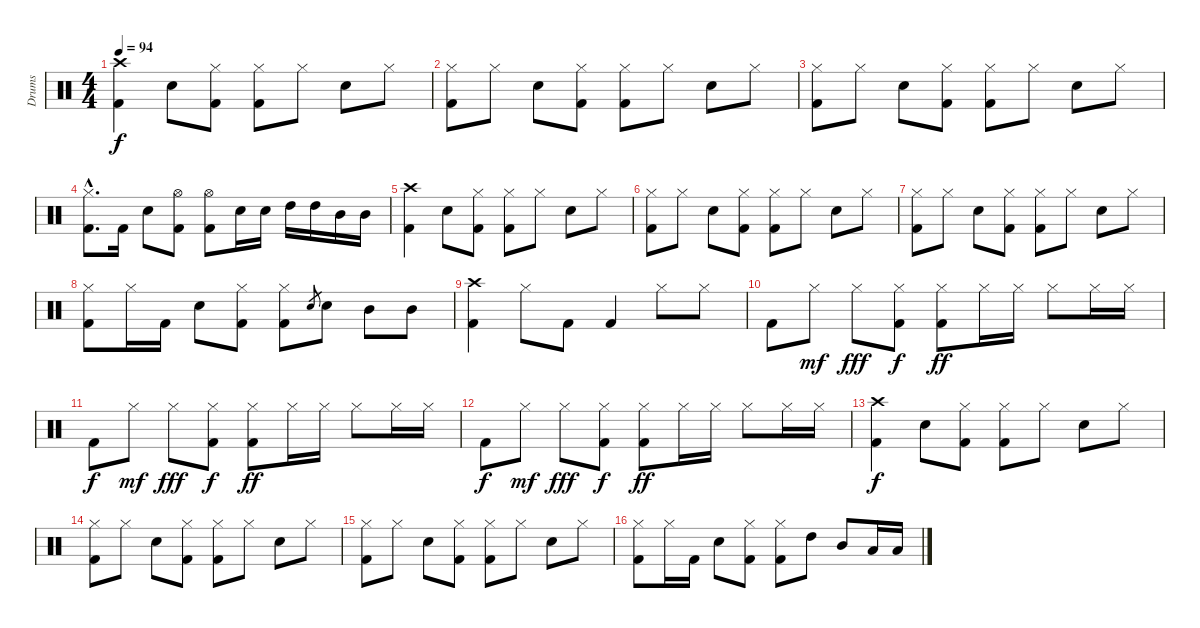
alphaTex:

\track ("Drums" "Drums") {instrument percussion}
\staff {score}
\articulation defaults
\ts (4 4)
\tempo 94
\clef neutral
\ks c
("Crash high (hit)" "Kick (hit) 2").4{dy f} "Snare (hit) 2".8 ("Hi-Hat (closed)" "Kick (hit) 2").8 ("Hi-Hat (closed)" "Kick (hit) 2").8 "Hi-Hat (closed)".8 "Snare (hit) 2".8 "Hi-Hat (closed)".8 |
("Hi-Hat (closed)" "Kick (hit) 2").8 "Hi-Hat (closed)".8 "Snare (hit) 2".8 ("Hi-Hat (closed)" "Kick (hit) 2").8 ("Hi-Hat (closed)" "Kick (hit) 2").8 "Hi-Hat (closed)".8 "Snare (hit) 2".8 "Hi-Hat (closed)".8 |
("Hi-Hat (closed)" "Kick (hit) 2").8 "Hi-Hat (closed)".8 "Snare (hit) 2".8 ("Hi-Hat (closed)" "Kick (hit) 2").8 ("Hi-Hat (closed)" "Kick (hit) 2").8 "Hi-Hat (closed)".8 "Snare (hit) 2".8 "Hi-Hat (closed)".8 |
("Hi-Hat (closed)"{hac} "Kick (hit) 2"{hac}).8{d} "Kick (hit) 2".16 "Snare (hit) 2".8 ("Hi-Hat (open)" "Kick (hit) 2").8 ("Hi-Hat (open)" "Kick (hit) 2").8 "Snare (hit) 2".16 "Snare (hit) 2".16 "High Tom (hit)".16 "High Tom (hit)".16 "Mid Tom (hit)".16 "Mid Tom (hit)".16 |
("Crash high (hit)" "Kick (hit) 2").4 "Snare (hit) 2".8 ("Hi-Hat (closed)" "Kick (hit) 2").8 ("Hi-Hat (closed)" "Kick (hit) 2").8 "Hi-Hat (closed)".8 "Snare (hit) 2".8 "Hi-Hat (closed)".8 |
("Hi-Hat (closed)" "Kick (hit) 2").8 "Hi-Hat (closed)".8 "Snare (hit) 2".8 ("Hi-Hat (closed)" "Kick (hit) 2").8 ("Hi-Hat (closed)" "Kick (hit) 2").8 "Hi-Hat (closed)".8 "Snare (hit) 2".8 "Hi-Hat (closed)".8 |
("Hi-Hat (closed)" "Kick (hit) 2").8 "Hi-Hat (closed)".8 "Snare (hit) 2".8 ("Hi-Hat (closed)" "Kick (hit) 2").8 ("Hi-Hat (closed)" "Kick (hit) 2").8 "Hi-Hat (closed)".8 "Snare (hit) 2".8 "Hi-Hat (closed)".8 |
("Hi-Hat (closed)" "Kick (hit) 2").8 "Hi-Hat (closed)".16 "Kick (hit) 2".16 "Snare (hit) 2".8 ("Hi-Hat (closed)" "Kick (hit) 2").8 ("Hi-Hat (closed)" "Kick (hit) 2").8 "Snare (hit) 2".8{gr} "Snare (hit) 2".8 "Mid Tom (hit)".8 "Mid Tom (hit)".8 |
("Crash high (hit)" "Kick (hit) 2").4 "Hi-Hat (closed)".8 "Kick (hit) 2".8 "Kick (hit) 2".4 "Hi-Hat (closed)".8 "Hi-Hat (closed)".8 |
"Kick (hit) 2".8 "Hi-Hat (closed)".8{dy mf} "Hi-Hat (closed)".8{dy fff} ("Hi-Hat (closed)" "Kick (hit) 2").8{dy f} ("Hi-Hat (closed)" "Kick (hit) 2").8{dy ff} "Hi-Hat (closed)".16 "Hi-Hat (closed)".16 "Hi-Hat (closed)".8 "Hi-Hat (closed)".16 "Hi-Hat (closed)".16 |
"Kick (hit) 2".8{dy f} "Hi-Hat (closed)".8{dy mf} "Hi-Hat (closed)".8{dy fff} ("Hi-Hat (closed)" "Kick (hit) 2").8{dy f} ("Hi-Hat (closed)" "Kick (hit) 2").8{dy ff} "Hi-Hat (closed)".16 "Hi-Hat (closed)".16 "Hi-Hat (closed)".8 "Hi-Hat (closed)".16 "Hi-Hat (closed)".16 |
"Kick (hit) 2".8{dy f} "Hi-Hat (closed)".8{dy mf} "Hi-Hat (closed)".8{dy fff} ("Hi-Hat (closed)" "Kick (hit) 2").8{dy f} ("Hi-Hat (closed)" "Kick (hit) 2").8{dy ff} "Hi-Hat (closed)".16 "Hi-Hat (closed)".16 "Hi-Hat (closed)".8 "Hi-Hat (closed)".16 "Hi-Hat (closed)".16 |
("Crash high (hit)" "Kick (hit) 2").4{dy f} "Snare (hit) 2".8 ("Hi-Hat (closed)" "Kick (hit) 2").8 ("Hi-Hat (closed)" "Kick (hit) 2").8 "Hi-Hat (closed)".8 "Snare (hit) 2".8 "Hi-Hat (closed)".8 |
("Hi-Hat (closed)" "Kick (hit) 2").8 "Hi-Hat (closed)".8 "Snare (hit) 2".8 ("Hi-Hat (closed)" "Kick (hit) 2").8 ("Hi-Hat (closed)" "Kick (hit) 2").8 "Hi-Hat (closed)".8 "Snare (hit) 2".8 "Hi-Hat (closed)".8 |
("Hi-Hat (closed)" "Kick (hit) 2").8 "Hi-Hat (closed)".8 "Snare (hit) 2".8 ("Hi-Hat (closed)" "Kick (hit) 2").8 ("Hi-Hat (closed)" "Kick (hit) 2").8 "Hi-Hat (closed)".8 "Snare (hit) 2".8 "Hi-Hat (closed)".8 |
("Hi-Hat (closed)" "Kick (hit) 2").8 "Hi-Hat (closed)".16 "Kick (hit) 2".16 "Snare (hit) 2".8 ("Hi-Hat (closed)" "Kick (hit) 2").8 ("Hi-Hat (closed)" "Kick (hit) 2").8 "High Tom (hit)".8 "Mid Tom (hit)".8 "Low Tom (hit)".16 "Low Tom (hit)".16
